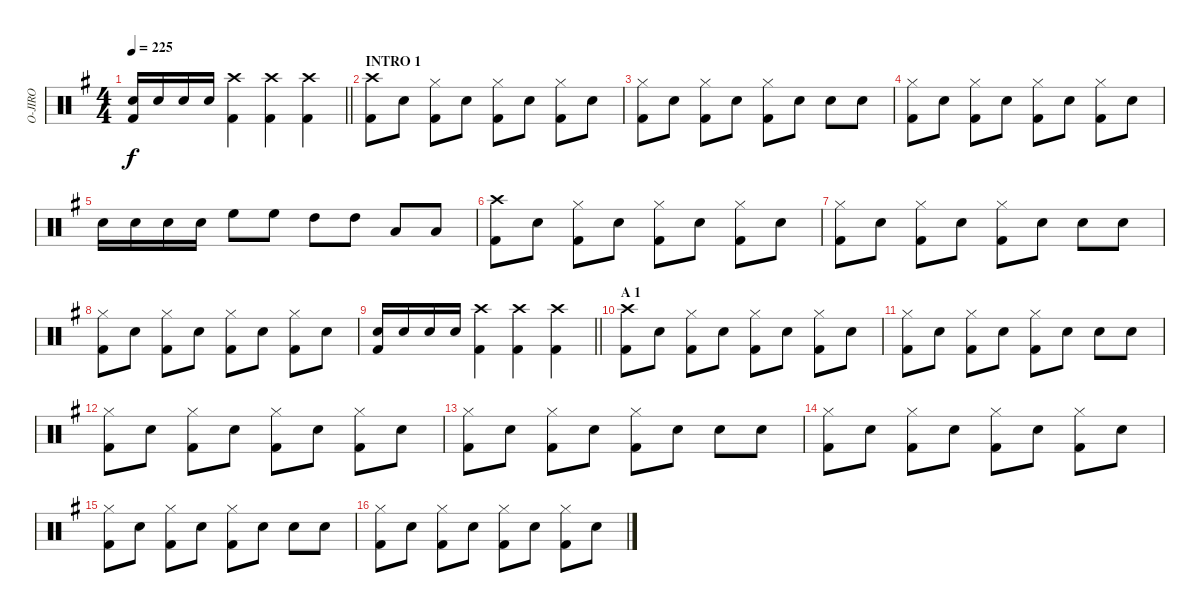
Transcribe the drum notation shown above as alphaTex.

\track ("O-JIRO" "O-JIRO") {instrument percussion}
\staff {score}
\articulation defaults
\ts (4 4)
\tempo 225
\clef neutral
\barLineRight lightlight
\ks g
("Snare (hit) 2" "Kick (hit) 2").16{dy f} "Snare (hit) 2".16 "Snare (hit) 2".16 "Snare (hit) 2".16 ("Crash high (hit)" "Kick (hit) 2").4 ("Crash high (hit)" "Kick (hit) 2").4 ("Crash high (hit)" "Kick (hit) 2").4 |
\section ("" "INTRO 1")
("Crash high (hit)" "Kick (hit) 2").8 "Snare (hit) 2".8 ("Hi-Hat (closed)" "Kick (hit) 2").8 "Snare (hit) 2".8 ("Hi-Hat (closed)" "Kick (hit) 2").8 "Snare (hit) 2".8 ("Hi-Hat (closed)" "Kick (hit) 2").8 "Snare (hit) 2".8 |
("Hi-Hat (closed)" "Kick (hit) 2").8 "Snare (hit) 2".8 ("Hi-Hat (closed)" "Kick (hit) 2").8 "Snare (hit) 2".8 ("Hi-Hat (closed)" "Kick (hit) 2").8 "Snare (hit) 2".8 "Snare (hit) 2".8 "Snare (hit) 2".8 |
("Hi-Hat (closed)" "Kick (hit) 2").8 "Snare (hit) 2".8 ("Hi-Hat (closed)" "Kick (hit) 2").8 "Snare (hit) 2".8 ("Hi-Hat (closed)" "Kick (hit) 2").8 "Snare (hit) 2".8 ("Hi-Hat (closed)" "Kick (hit) 2").8 "Snare (hit) 2".8 |
"Snare (hit) 2".16 "Snare (hit) 2".16 "Snare (hit) 2".16 "Snare (hit) 2".16 "High Floor Tom (hit)".8 "High Floor Tom (hit)".8 "High Tom (hit)".8 "High Tom (hit)".8 "Low Tom (hit)".8 "Low Tom (hit)".8 |
("Crash high (hit)" "Kick (hit) 2").8 "Snare (hit) 2".8 ("Hi-Hat (closed)" "Kick (hit) 2").8 "Snare (hit) 2".8 ("Hi-Hat (closed)" "Kick (hit) 2").8 "Snare (hit) 2".8 ("Hi-Hat (closed)" "Kick (hit) 2").8 "Snare (hit) 2".8 |
("Hi-Hat (closed)" "Kick (hit) 2").8 "Snare (hit) 2".8 ("Hi-Hat (closed)" "Kick (hit) 2").8 "Snare (hit) 2".8 ("Hi-Hat (closed)" "Kick (hit) 2").8 "Snare (hit) 2".8 "Snare (hit) 2".8 "Snare (hit) 2".8 |
("Hi-Hat (closed)" "Kick (hit) 2").8 "Snare (hit) 2".8 ("Hi-Hat (closed)" "Kick (hit) 2").8 "Snare (hit) 2".8 ("Hi-Hat (closed)" "Kick (hit) 2").8 "Snare (hit) 2".8 ("Hi-Hat (closed)" "Kick (hit) 2").8 "Snare (hit) 2".8 |
\barLineRight lightlight
("Snare (hit) 2" "Kick (hit) 2").16 "Snare (hit) 2".16 "Snare (hit) 2".16 "Snare (hit) 2".16 ("Crash high (hit)" "Kick (hit) 2").4 ("Crash high (hit)" "Kick (hit) 2").4 ("Crash high (hit)" "Kick (hit) 2").4 |
\section ("" "A 1")
("Crash high (hit)" "Kick (hit) 2").8 "Snare (hit) 2".8 ("Hi-Hat (closed)" "Kick (hit) 2").8 "Snare (hit) 2".8 ("Hi-Hat (closed)" "Kick (hit) 2").8 "Snare (hit) 2".8 ("Hi-Hat (closed)" "Kick (hit) 2").8 "Snare (hit) 2".8 |
("Hi-Hat (closed)" "Kick (hit) 2").8 "Snare (hit) 2".8 ("Hi-Hat (closed)" "Kick (hit) 2").8 "Snare (hit) 2".8 ("Hi-Hat (closed)" "Kick (hit) 2").8 "Snare (hit) 2".8 "Snare (hit) 2".8 "Snare (hit) 2".8 |
("Hi-Hat (closed)" "Kick (hit) 2").8 "Snare (hit) 2".8 ("Hi-Hat (closed)" "Kick (hit) 2").8 "Snare (hit) 2".8 ("Hi-Hat (closed)" "Kick (hit) 2").8 "Snare (hit) 2".8 ("Hi-Hat (closed)" "Kick (hit) 2").8 "Snare (hit) 2".8 |
("Hi-Hat (closed)" "Kick (hit) 2").8 "Snare (hit) 2".8 ("Hi-Hat (closed)" "Kick (hit) 2").8 "Snare (hit) 2".8 ("Hi-Hat (closed)" "Kick (hit) 2").8 "Snare (hit) 2".8 "Snare (hit) 2".8 "Snare (hit) 2".8 |
("Hi-Hat (closed)" "Kick (hit) 2").8 "Snare (hit) 2".8 ("Hi-Hat (closed)" "Kick (hit) 2").8 "Snare (hit) 2".8 ("Hi-Hat (closed)" "Kick (hit) 2").8 "Snare (hit) 2".8 ("Hi-Hat (closed)" "Kick (hit) 2").8 "Snare (hit) 2".8 |
("Hi-Hat (closed)" "Kick (hit) 2").8 "Snare (hit) 2".8 ("Hi-Hat (closed)" "Kick (hit) 2").8 "Snare (hit) 2".8 ("Hi-Hat (closed)" "Kick (hit) 2").8 "Snare (hit) 2".8 "Snare (hit) 2".8 "Snare (hit) 2".8 |
("Hi-Hat (closed)" "Kick (hit) 2").8 "Snare (hit) 2".8 ("Hi-Hat (closed)" "Kick (hit) 2").8 "Snare (hit) 2".8 ("Hi-Hat (closed)" "Kick (hit) 2").8 "Snare (hit) 2".8 ("Hi-Hat (closed)" "Kick (hit) 2").8 "Snare (hit) 2".8
